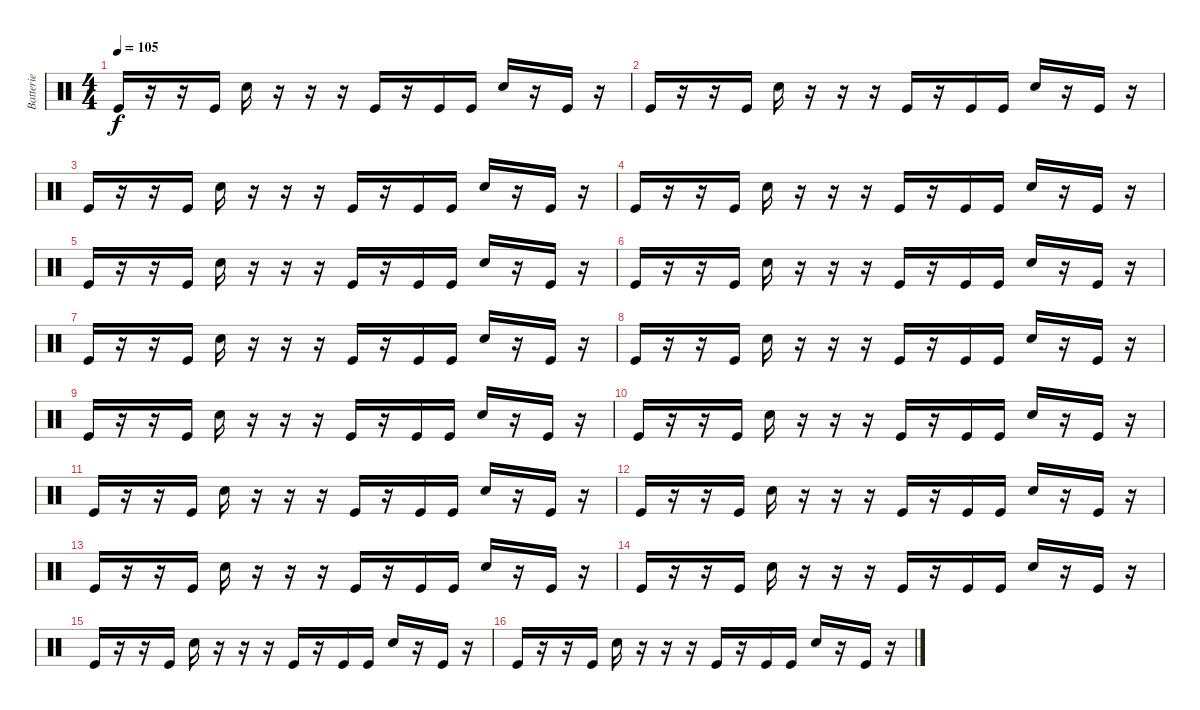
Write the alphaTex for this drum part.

\track ("Batterie" "Batterie") {instrument percussion}
\staff {score}
\articulation defaults
\ts (4 4)
\tempo 105
\clef neutral
\ks c "Kick (hit)".16{dy f}
r.16 r.16 "Kick (hit)".16 "Electric Snare (hit)".16 r.16 r.16 r.16 "Kick (hit)".16 r.16 "Kick (hit)".16 "Kick (hit)".16 "Electric Snare (hit)".16 r.16 "Kick (hit)".16 r.16 |
"Kick (hit)".16 r.16 r.16 "Kick (hit)".16 "Electric Snare (hit)".16 r.16 r.16 r.16 "Kick (hit)".16 r.16 "Kick (hit)".16 "Kick (hit)".16 "Electric Snare (hit)".16 r.16 "Kick (hit)".16 r.16 |
"Kick (hit)".16 r.16 r.16 "Kick (hit)".16 "Electric Snare (hit)".16 r.16 r.16 r.16 "Kick (hit)".16 r.16 "Kick (hit)".16 "Kick (hit)".16 "Electric Snare (hit)".16 r.16 "Kick (hit)".16 r.16 |
"Kick (hit)".16 r.16 r.16 "Kick (hit)".16 "Electric Snare (hit)".16 r.16 r.16 r.16 "Kick (hit)".16 r.16 "Kick (hit)".16 "Kick (hit)".16 "Electric Snare (hit)".16 r.16 "Kick (hit)".16 r.16 |
"Kick (hit)".16 r.16 r.16 "Kick (hit)".16 "Electric Snare (hit)".16 r.16 r.16 r.16 "Kick (hit)".16 r.16 "Kick (hit)".16 "Kick (hit)".16 "Electric Snare (hit)".16 r.16 "Kick (hit)".16 r.16 |
"Kick (hit)".16 r.16 r.16 "Kick (hit)".16 "Electric Snare (hit)".16 r.16 r.16 r.16 "Kick (hit)".16 r.16 "Kick (hit)".16 "Kick (hit)".16 "Electric Snare (hit)".16 r.16 "Kick (hit)".16 r.16 |
"Kick (hit)".16 r.16 r.16 "Kick (hit)".16 "Electric Snare (hit)".16 r.16 r.16 r.16 "Kick (hit)".16 r.16 "Kick (hit)".16 "Kick (hit)".16 "Electric Snare (hit)".16 r.16 "Kick (hit)".16 r.16 |
"Kick (hit)".16 r.16 r.16 "Kick (hit)".16 "Electric Snare (hit)".16 r.16 r.16 r.16 "Kick (hit)".16 r.16 "Kick (hit)".16 "Kick (hit)".16 "Electric Snare (hit)".16 r.16 "Kick (hit)".16 r.16 |
"Kick (hit)".16 r.16 r.16 "Kick (hit)".16 "Electric Snare (hit)".16 r.16 r.16 r.16 "Kick (hit)".16 r.16 "Kick (hit)".16 "Kick (hit)".16 "Electric Snare (hit)".16 r.16 "Kick (hit)".16 r.16 |
"Kick (hit)".16 r.16 r.16 "Kick (hit)".16 "Electric Snare (hit)".16 r.16 r.16 r.16 "Kick (hit)".16 r.16 "Kick (hit)".16 "Kick (hit)".16 "Electric Snare (hit)".16 r.16 "Kick (hit)".16 r.16 |
"Kick (hit)".16 r.16 r.16 "Kick (hit)".16 "Electric Snare (hit)".16 r.16 r.16 r.16 "Kick (hit)".16 r.16 "Kick (hit)".16 "Kick (hit)".16 "Electric Snare (hit)".16 r.16 "Kick (hit)".16 r.16 |
"Kick (hit)".16 r.16 r.16 "Kick (hit)".16 "Electric Snare (hit)".16 r.16 r.16 r.16 "Kick (hit)".16 r.16 "Kick (hit)".16 "Kick (hit)".16 "Electric Snare (hit)".16 r.16 "Kick (hit)".16 r.16 |
"Kick (hit)".16 r.16 r.16 "Kick (hit)".16 "Electric Snare (hit)".16 r.16 r.16 r.16 "Kick (hit)".16 r.16 "Kick (hit)".16 "Kick (hit)".16 "Electric Snare (hit)".16 r.16 "Kick (hit)".16 r.16 |
"Kick (hit)".16 r.16 r.16 "Kick (hit)".16 "Electric Snare (hit)".16 r.16 r.16 r.16 "Kick (hit)".16 r.16 "Kick (hit)".16 "Kick (hit)".16 "Electric Snare (hit)".16 r.16 "Kick (hit)".16 r.16 |
"Kick (hit)".16 r.16 r.16 "Kick (hit)".16 "Electric Snare (hit)".16 r.16 r.16 r.16 "Kick (hit)".16 r.16 "Kick (hit)".16 "Kick (hit)".16 "Electric Snare (hit)".16 r.16 "Kick (hit)".16 r.16 |
"Kick (hit)".16 r.16 r.16 "Kick (hit)".16 "Electric Snare (hit)".16 r.16 r.16 r.16 "Kick (hit)".16 r.16 "Kick (hit)".16 "Kick (hit)".16 "Electric Snare (hit)".16 r.16 "Kick (hit)".16 r.16
